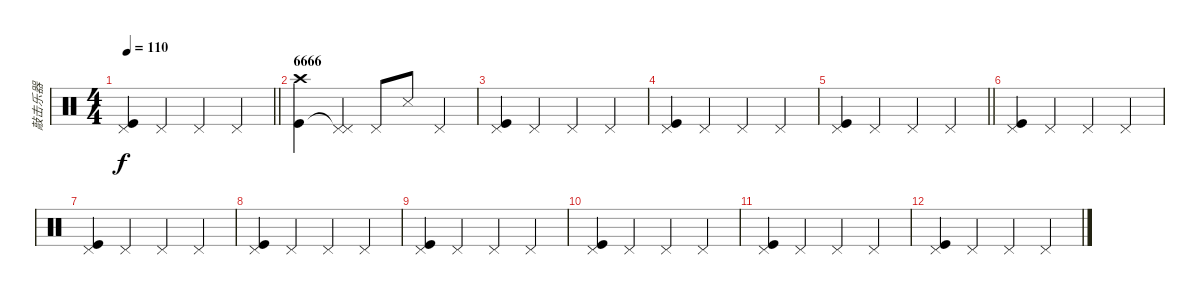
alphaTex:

\track ("敲击乐器" "敲击乐器") {instrument percussion}
\staff {score}
\articulation defaults
\ts (4 4)
\tempo 110
\clef neutral
\barLineRight lightlight
\ks c
("Pedal Hi-Hat (hit)" "Kick (hit)").4{dy f} "Pedal Hi-Hat (hit)".4 "Pedal Hi-Hat (hit)".4 "Pedal Hi-Hat (hit)".4 |
\section ("" "6666")
("Crash high (hit)" "Kick (hit)").4 ("Pedal Hi-Hat (hit)" "Pedal Hi-Hat (hit)"{t}).4 "Pedal Hi-Hat (hit)".8 "Snare (side stick) 3".8 "Pedal Hi-Hat (hit)".4 |
("Pedal Hi-Hat (hit)" "Kick (hit)").4 "Pedal Hi-Hat (hit)".4 "Pedal Hi-Hat (hit)".4 "Pedal Hi-Hat (hit)".4 |
("Pedal Hi-Hat (hit)" "Kick (hit)").4 "Pedal Hi-Hat (hit)".4 "Pedal Hi-Hat (hit)".4 "Pedal Hi-Hat (hit)".4 |
\barLineRight lightlight
("Pedal Hi-Hat (hit)" "Kick (hit)").4 "Pedal Hi-Hat (hit)".4 "Pedal Hi-Hat (hit)".4 "Pedal Hi-Hat (hit)".4 |
\section ("" " ")
("Pedal Hi-Hat (hit)" "Kick (hit)").4 "Pedal Hi-Hat (hit)".4 "Pedal Hi-Hat (hit)".4 "Pedal Hi-Hat (hit)".4 |
("Pedal Hi-Hat (hit)" "Kick (hit)").4 "Pedal Hi-Hat (hit)".4 "Pedal Hi-Hat (hit)".4 "Pedal Hi-Hat (hit)".4 |
("Pedal Hi-Hat (hit)" "Kick (hit)").4 "Pedal Hi-Hat (hit)".4 "Pedal Hi-Hat (hit)".4 "Pedal Hi-Hat (hit)".4 |
("Pedal Hi-Hat (hit)" "Kick (hit)").4 "Pedal Hi-Hat (hit)".4 "Pedal Hi-Hat (hit)".4 "Pedal Hi-Hat (hit)".4 |
("Pedal Hi-Hat (hit)" "Kick (hit)").4 "Pedal Hi-Hat (hit)".4 "Pedal Hi-Hat (hit)".4 "Pedal Hi-Hat (hit)".4 |
("Pedal Hi-Hat (hit)" "Kick (hit)").4 "Pedal Hi-Hat (hit)".4 "Pedal Hi-Hat (hit)".4 "Pedal Hi-Hat (hit)".4 |
("Pedal Hi-Hat (hit)" "Kick (hit)").4 "Pedal Hi-Hat (hit)".4 "Pedal Hi-Hat (hit)".4 "Pedal Hi-Hat (hit)".4
